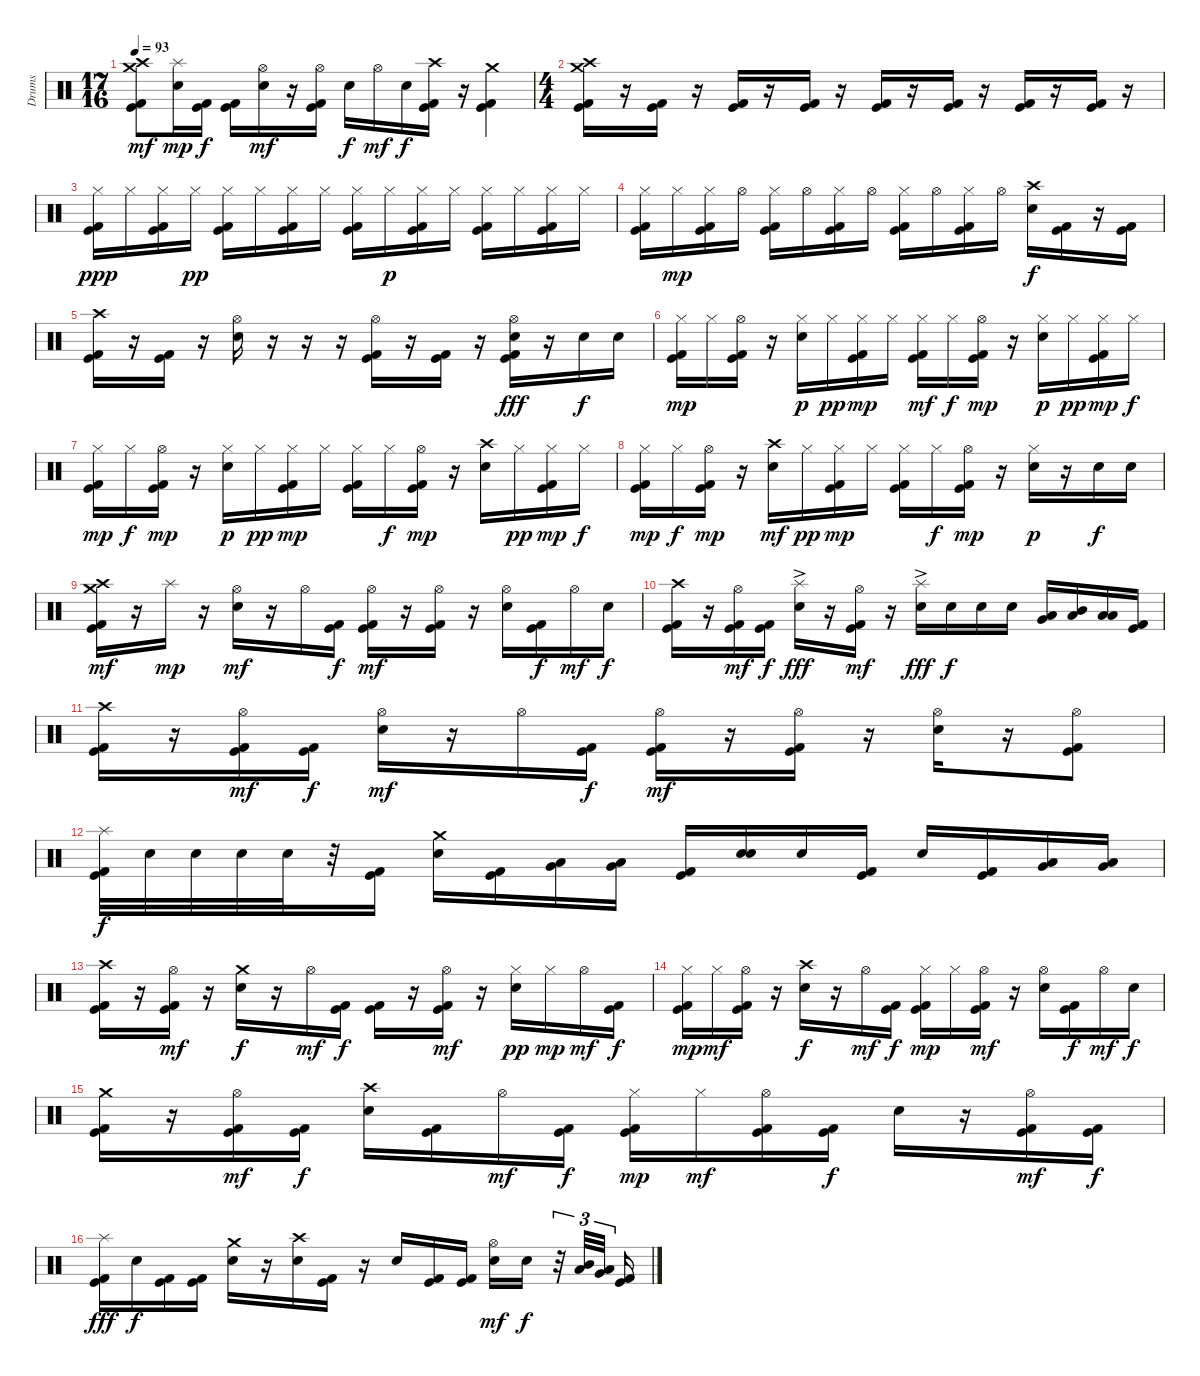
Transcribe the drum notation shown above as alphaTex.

\track ("Drums" "Drums") {instrument percussion}
\staff {score}
\articulation defaults
\ts (17 16)
\tempo 93
\clef neutral
\ks c
("Crash medium (hit)" "Crash high (hit)" "Kick (hit)" "Kick (hit) 2").8{dy mf} ("Splash (hit)" "Electric Snare (hit)").16{dy mp} ("Kick (hit)" "Kick (hit) 2").16{dy f} ("Kick (hit)" "Kick (hit) 2").16 ("Hi-Hat (open)" "Electric Snare (hit)").16{dy mf} r.16 ("Hi-Hat (open)" "Kick (hit)" "Kick (hit) 2").16 "Electric Snare (hit)".16{dy f} "Hi-Hat (open)".16{dy mf} "Electric Snare (hit)".16{dy f} ("Crash high (hit)" "Kick (hit)" "Kick (hit) 2").16 r.16 ("Crash medium (hit)" "Kick (hit)" "Kick (hit) 2").4 |
\ts (4 4)
("Crash high (hit)" "Crash medium (hit)" "Kick (hit)" "Kick (hit) 2").16 r.16 ("Kick (hit)" "Kick (hit) 2").16 r.16 ("Kick (hit)" "Kick (hit) 2").16 r.16 ("Kick (hit)" "Kick (hit) 2").16 r.16 ("Kick (hit)" "Kick (hit) 2").16 r.16 ("Kick (hit)" "Kick (hit) 2").16 r.16 ("Kick (hit)" "Kick (hit) 2").16 r.16 ("Kick (hit)" "Kick (hit) 2").16 r.16 |
("Hi-Hat (closed)" "Kick (hit)" "Kick (hit) 2").16{dy ppp} "Hi-Hat (closed)".16 ("Hi-Hat (closed)" "Kick (hit)" "Kick (hit) 2").16 "Hi-Hat (closed)".16{dy pp} ("Hi-Hat (closed)" "Kick (hit)" "Kick (hit) 2").16 "Hi-Hat (closed)".16 ("Hi-Hat (closed)" "Kick (hit)" "Kick (hit) 2").16 "Hi-Hat (closed)".16 ("Hi-Hat (closed)" "Kick (hit)" "Kick (hit) 2").16 "Hi-Hat (closed)".16{dy p} ("Hi-Hat (closed)" "Kick (hit)" "Kick (hit) 2").16 "Hi-Hat (closed)".16 ("Hi-Hat (closed)" "Kick (hit)" "Kick (hit) 2").16 "Hi-Hat (closed)".16 ("Hi-Hat (closed)" "Kick (hit)" "Kick (hit) 2").16 "Hi-Hat (closed)".16 |
("Hi-Hat (closed)" "Kick (hit)" "Kick (hit) 2").16 "Hi-Hat (closed)".16{dy mp} ("Hi-Hat (closed)" "Kick (hit)" "Kick (hit) 2").16 "Hi-Hat (open)".16 ("Hi-Hat (closed)" "Kick (hit)" "Kick (hit) 2").16 "Hi-Hat (open)".16 ("Hi-Hat (closed)" "Kick (hit)" "Kick (hit) 2").16 "Hi-Hat (open)".16 ("Hi-Hat (closed)" "Kick (hit)" "Kick (hit) 2").16 "Hi-Hat (open)".16 ("Hi-Hat (closed)" "Kick (hit)" "Kick (hit) 2").16 "Hi-Hat (open)".16 ("Crash high (hit)" "Electric Snare (hit)").16{dy f} ("Kick (hit)" "Kick (hit) 2").16 r.16 ("Kick (hit)" "Kick (hit) 2").16 |
("Crash high (hit)" "Kick (hit)" "Kick (hit) 2").16 r.16 ("Kick (hit)" "Kick (hit) 2").16 r.16 ("Hi-Hat (open)" "Electric Snare (hit)").16 r.16 r.16 r.16 ("Hi-Hat (open)" "Kick (hit)" "Kick (hit) 2").16 r.16 ("Kick (hit)" "Kick (hit) 2").16 r.16 ("Hi-Hat (open)" "Electric Snare (hit)" "Kick (hit)" "Kick (hit) 2").16{dy fff} r.16 "Electric Snare (hit)".16{dy f} "Electric Snare (hit)".16 |
("Hi-Hat (closed)" "Kick (hit)" "Kick (hit) 2").16{dy mp} "Hi-Hat (closed)".16 ("Hi-Hat (open)" "Kick (hit)" "Kick (hit) 2").16 r.16 ("Hi-Hat (closed)" "Electric Snare (hit)").16{dy p} "Hi-Hat (closed)".16{dy pp} ("Hi-Hat (closed)" "Kick (hit)" "Kick (hit) 2").16{dy mp} "Hi-Hat (closed)".16 ("Hi-Hat (closed)" "Kick (hit)" "Kick (hit) 2").16{dy mf} "Hi-Hat (closed)".16{dy f} ("Hi-Hat (open)" "Kick (hit)" "Kick (hit) 2").16{dy mp} r.16 ("Hi-Hat (closed)" "Electric Snare (hit)").16{dy p} "Hi-Hat (closed)".16{dy pp} ("Hi-Hat (closed)" "Kick (hit)" "Kick (hit) 2").16{dy mp} "Hi-Hat (closed)".16{dy f} |
("Hi-Hat (closed)" "Kick (hit)" "Kick (hit) 2").16{dy mp} "Hi-Hat (closed)".16{dy f} ("Hi-Hat (open)" "Kick (hit)" "Kick (hit) 2").16{dy mp} r.16 ("Hi-Hat (closed)" "Electric Snare (hit)").16{dy p} "Hi-Hat (closed)".16{dy pp} ("Hi-Hat (closed)" "Kick (hit)" "Kick (hit) 2").16{dy mp} "Hi-Hat (closed)".16 ("Hi-Hat (closed)" "Kick (hit)" "Kick (hit) 2").16 "Hi-Hat (closed)".16{dy f} ("Hi-Hat (open)" "Kick (hit)" "Kick (hit) 2").16{dy mp} r.16 ("Crash high (hit)" "Electric Snare (hit)").16 "Hi-Hat (closed)".16{dy pp} ("Hi-Hat (closed)" "Kick (hit)" "Kick (hit) 2").16{dy mp} "Hi-Hat (closed)".16{dy f} |
("Hi-Hat (closed)" "Kick (hit)" "Kick (hit) 2").16{dy mp} "Hi-Hat (closed)".16{dy f} ("Hi-Hat (open)" "Kick (hit)" "Kick (hit) 2").16{dy mp} r.16 ("Crash high (hit)" "Electric Snare (hit)").16{dy mf} "Hi-Hat (closed)".16{dy pp} ("Hi-Hat (closed)" "Kick (hit)" "Kick (hit) 2").16{dy mp} "Hi-Hat (closed)".16 ("Hi-Hat (closed)" "Kick (hit)" "Kick (hit) 2").16 "Hi-Hat (closed)".16{dy f} ("Hi-Hat (open)" "Kick (hit)" "Kick (hit) 2").16{dy mp} r.16 ("Hi-Hat (closed)" "Electric Snare (hit)").16{dy p} r.16 "Electric Snare (hit)".16{dy f} "Electric Snare (hit)".16 |
("Crash high (hit)" "Crash medium (hit)" "Kick (hit)" "Kick (hit) 2").16{dy mf} r.16 "Splash (hit)".16{dy mp} r.16 ("Hi-Hat (open)" "Electric Snare (hit)").16{dy mf} r.16 "Hi-Hat (open)".16 ("Kick (hit)" "Kick (hit) 2").16{dy f} ("Hi-Hat (open)" "Kick (hit)" "Kick (hit) 2").16{dy mf} r.16 ("Hi-Hat (open)" "Kick (hit)" "Kick (hit) 2").16 r.16 ("Hi-Hat (open)" "Electric Snare (hit)").16 ("Kick (hit)" "Kick (hit) 2").16{dy f} "Hi-Hat (open)".16{dy mf} "Electric Snare (hit)".16{dy f} |
("Crash high (hit)" "Kick (hit)" "Kick (hit) 2").16 r.16 ("Hi-Hat (open)" "Kick (hit)" "Kick (hit) 2").16{dy mf} ("Kick (hit)" "Kick (hit) 2").16{dy f} ("Splash (hit)"{ac} "Electric Snare (hit)").16{dy fff} r.16 ("Hi-Hat (open)" "Kick (hit)" "Kick (hit) 2").16{dy mf} r.16 ("Splash (hit)"{ac} "Electric Snare (hit)").16{dy fff} "Electric Snare (hit)".16{dy f} "Electric Snare (hit)".16 "Electric Snare (hit)".16 ("Very Low Tom (hit)" "Low Tom (hit)").16 ("Mid Tom (hit)" "Low Tom (hit)").16 ("Low Tom (hit)" "Low Tom (hit)").16 ("Kick (hit)" "Kick (hit) 2").16 |
("Crash high (hit)" "Kick (hit)" "Kick (hit) 2").16 r.16 ("Hi-Hat (open)" "Kick (hit)" "Kick (hit) 2").16{dy mf} ("Kick (hit)" "Kick (hit) 2").16{dy f} ("Hi-Hat (open)" "Electric Snare (hit)").16{dy mf} r.16 "Hi-Hat (open)".16 ("Kick (hit)" "Kick (hit) 2").16{dy f} ("Hi-Hat (open)" "Kick (hit)" "Kick (hit) 2").16{dy mf} r.16 ("Hi-Hat (open)" "Kick (hit)" "Kick (hit) 2").16 r.16 ("Hi-Hat (open)" "Electric Snare (hit)").16 r.16 ("Hi-Hat (open)" "Kick (hit)" "Kick (hit) 2").8 |
("Splash (hit)" "Kick (hit)" "Kick (hit) 2").32{dy f} "Electric Snare (hit)".32 "Electric Snare (hit)".32 "Electric Snare (hit)".32 "Electric Snare (hit)".32 r.32 ("Kick (hit)" "Kick (hit) 2").16 ("Crash medium (hit)" "Electric Snare (hit)").16 ("Kick (hit)" "Kick (hit) 2").16 ("Low Tom (hit)" "Very Low Tom (hit)").16 ("Low Tom (hit)" "Very Low Tom (hit)").16 ("Kick (hit)" "Kick (hit) 2").16 ("Electric Snare (hit)" "Electric Snare (hit)").16 "Electric Snare (hit)".16 ("Kick (hit)" "Kick (hit) 2").16 "Electric Snare (hit)".16 ("Kick (hit)" "Kick (hit) 2").16 ("Very Low Tom (hit)" "Low Floor Tom (hit)").16 ("Very Low Tom (hit)" "Low Floor Tom (hit)").16 |
("Crash high (hit)" "Kick (hit)" "Kick (hit) 2").16 r.16 ("Hi-Hat (open)" "Kick (hit)" "Kick (hit) 2").16{dy mf} r.16 ("Crash medium (hit)" "Electric Snare (hit)").16{dy f} r.16 "Hi-Hat (open)".16{dy mf} ("Kick (hit)" "Kick (hit) 2").16{dy f} ("Kick (hit)" "Kick (hit) 2").16 r.16 ("Hi-Hat (open)" "Kick (hit)" "Kick (hit) 2").16{dy mf} r.16 ("Hi-Hat (closed)" "Electric Snare (hit)").16{dy pp} "Hi-Hat (closed)".16{dy mp} "Hi-Hat (open)".16{dy mf} ("Kick (hit)" "Kick (hit) 2").16{dy f} |
("Hi-Hat (closed)" "Kick (hit)" "Kick (hit) 2").16{dy mp} "Hi-Hat (closed)".16{dy mf} ("Hi-Hat (open)" "Kick (hit)" "Kick (hit) 2").16 r.16 ("Crash high (hit)" "Electric Snare (hit)").16{dy f} r.16 "Hi-Hat (open)".16{dy mf} ("Kick (hit)" "Kick (hit) 2").16{dy f} ("Hi-Hat (closed)" "Kick (hit)" "Kick (hit) 2").16{dy mp} "Hi-Hat (closed)".16 ("Hi-Hat (open)" "Kick (hit)" "Kick (hit) 2").16{dy mf} r.16 ("Hi-Hat (open)" "Electric Snare (hit)").16 ("Kick (hit)" "Kick (hit) 2").16{dy f} "Hi-Hat (open)".16{dy mf} "Electric Snare (hit)".16{dy f} |
("Crash medium (hit)" "Kick (hit)" "Kick (hit) 2").16 r.16 ("Hi-Hat (open)" "Kick (hit)" "Kick (hit) 2").16{dy mf} ("Kick (hit)" "Kick (hit) 2").16{dy f} ("Crash high (hit)" "Electric Snare (hit)").16 ("Kick (hit)" "Kick (hit) 2").16 "Hi-Hat (open)".16{dy mf} ("Kick (hit)" "Kick (hit) 2").16{dy f} ("Hi-Hat (closed)" "Kick (hit)" "Kick (hit) 2").16{dy mp} "Hi-Hat (closed)".16{dy mf} ("Hi-Hat (open)" "Kick (hit)" "Kick (hit) 2").16 ("Kick (hit)" "Kick (hit) 2").16{dy f} "Electric Snare (hit)".16 r.16 ("Hi-Hat (open)" "Kick (hit)" "Kick (hit) 2").16{dy mf} ("Kick (hit)" "Kick (hit) 2").16{dy f} |
("Splash (hit)" "Kick (hit)" "Kick (hit) 2").16{dy fff} "Electric Snare (hit)".16{dy f} ("Kick (hit)" "Kick (hit) 2").16 ("Kick (hit)" "Kick (hit) 2").16 ("Crash medium (hit)" "Electric Snare (hit)").16 r.16 ("Crash high (hit)" "Electric Snare (hit)").16 ("Kick (hit)" "Kick (hit) 2").16 r.16 "Electric Snare (hit)".16 ("Kick (hit)" "Kick (hit) 2").16 ("Kick (hit)" "Kick (hit) 2").16 ("Hi-Hat (open)" "Electric Snare (hit)").16{dy mf} "Electric Snare (hit)".16{dy f} r.32{tu (3 2)} ("Low Tom (hit)" "Mid Tom (hit)").32{tu (3 2)} ("Very Low Tom (hit)" "Low Tom (hit)").32{tu (3 2)} ("Kick (hit)" "Kick (hit) 2").16
